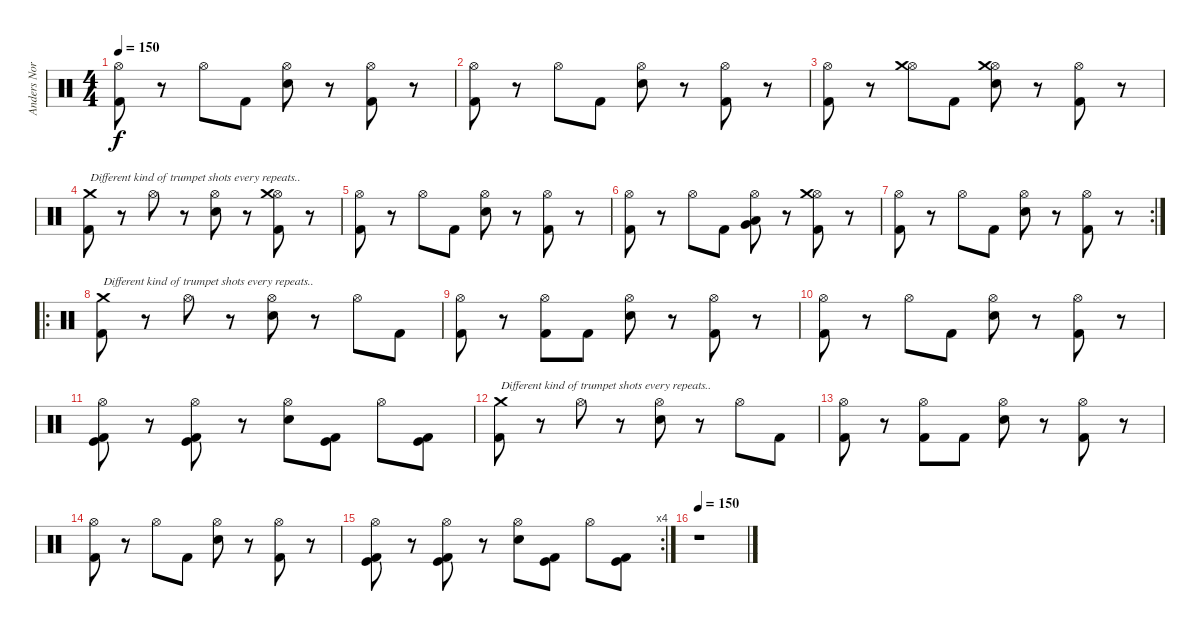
\track ("Anders Nordin" "Anders Nor") {instrument percussion}
\staff {score}
\articulation defaults
\ts (4 4)
\tempo 150
\clef neutral
\ks c
("Hi-Hat (open)" "Kick (hit) 2").8{dy f} r.8 "Hi-Hat (open)".8 "Kick (hit) 2".8 ("Hi-Hat (open)" "Snare (hit) 2").8 r.8 ("Hi-Hat (open)" "Kick (hit) 2").8 r.8 |
("Hi-Hat (open)" "Kick (hit) 2").8 r.8 "Hi-Hat (open)".8 "Kick (hit) 2".8 ("Hi-Hat (open)" "Snare (hit) 2").8 r.8 ("Hi-Hat (open)" "Kick (hit) 2").8 r.8 |
("Hi-Hat (open)" "Kick (hit) 2").8 r.8 ("Hi-Hat (open)" "Crash medium (hit)").8 "Kick (hit) 2".8 ("Hi-Hat (open)" "Crash medium (hit)" "Snare (hit) 2").8 r.8 ("Hi-Hat (open)" "Kick (hit) 2").8 r.8 |
("Crash medium (hit)" "Kick (hit) 2").8{txt "Different kind of trumpet shots every repeats.."} r.8 "Hi-Hat (open)".8 r.8 ("Hi-Hat (open)" "Snare (hit) 2").8 r.8 ("Hi-Hat (open)" "Crash medium (hit)" "Kick (hit) 2").8 r.8 |
("Hi-Hat (open)" "Kick (hit) 2").8 r.8 "Hi-Hat (open)".8 "Kick (hit) 2".8 ("Hi-Hat (open)" "Snare (hit) 2").8 r.8 ("Hi-Hat (open)" "Kick (hit) 2").8 r.8 |
("Hi-Hat (open)" "Kick (hit) 2").8 r.8 "Hi-Hat (open)".8 "Kick (hit) 2".8 ("Hi-Hat (open)" "Very Low Tom (hit)" "Low Tom (hit)").8 r.8 ("Hi-Hat (open)" "Crash medium (hit)" "Kick (hit) 2").8 r.8 |
\rc 2
("Hi-Hat (open)" "Kick (hit) 2").8 r.8 "Hi-Hat (open)".8 "Kick (hit) 2".8 ("Hi-Hat (open)" "Snare (hit) 2").8 r.8 ("Hi-Hat (open)" "Kick (hit) 2").8 r.8 |
\ro
("Crash medium (hit)" "Kick (hit) 2").8{txt "Different kind of trumpet shots every repeats.."} r.8 "Hi-Hat (open)".8 r.8 ("Hi-Hat (open)" "Snare (hit) 2").8 r.8 "Hi-Hat (open)".8 "Kick (hit) 2".8 |
("Hi-Hat (open)" "Kick (hit) 2").8 r.8 ("Hi-Hat (open)" "Kick (hit) 2").8 "Kick (hit) 2".8 ("Hi-Hat (open)" "Snare (hit) 2").8 r.8 ("Hi-Hat (open)" "Kick (hit) 2").8 r.8 |
("Hi-Hat (open)" "Kick (hit) 2").8 r.8 "Hi-Hat (open)".8 "Kick (hit) 2".8 ("Hi-Hat (open)" "Snare (hit) 2").8 r.8 ("Hi-Hat (open)" "Kick (hit) 2").8 r.8 |
("Hi-Hat (open)" "Kick (hit)" "Kick (hit) 2").8 r.8 ("Hi-Hat (open)" "Kick (hit)" "Kick (hit) 2").8 r.8 ("Hi-Hat (open)" "Snare (hit) 2").8 ("Kick (hit)" "Kick (hit) 2").8 "Hi-Hat (open)".8 ("Kick (hit)" "Kick (hit) 2").8 |
("Crash medium (hit)" "Kick (hit) 2").8{txt "Different kind of trumpet shots every repeats.."} r.8 "Hi-Hat (open)".8 r.8 ("Hi-Hat (open)" "Snare (hit) 2").8 r.8 "Hi-Hat (open)".8 "Kick (hit) 2".8 |
("Hi-Hat (open)" "Kick (hit) 2").8 r.8 ("Hi-Hat (open)" "Kick (hit) 2").8 "Kick (hit) 2".8 ("Hi-Hat (open)" "Snare (hit) 2").8 r.8 ("Hi-Hat (open)" "Kick (hit) 2").8 r.8 |
("Hi-Hat (open)" "Kick (hit) 2").8 r.8 "Hi-Hat (open)".8 "Kick (hit) 2".8 ("Hi-Hat (open)" "Snare (hit) 2").8 r.8 ("Hi-Hat (open)" "Kick (hit) 2").8 r.8 |
\rc 4
("Hi-Hat (open)" "Kick (hit)" "Kick (hit) 2").8 r.8 ("Hi-Hat (open)" "Kick (hit) 2" "Kick (hit)").8 r.8 ("Hi-Hat (open)" "Snare (hit) 2").8 ("Kick (hit) 2" "Kick (hit)").8 "Hi-Hat (open)".8 ("Kick (hit) 2" "Kick (hit)").8 |
\tempo 150
r.1
